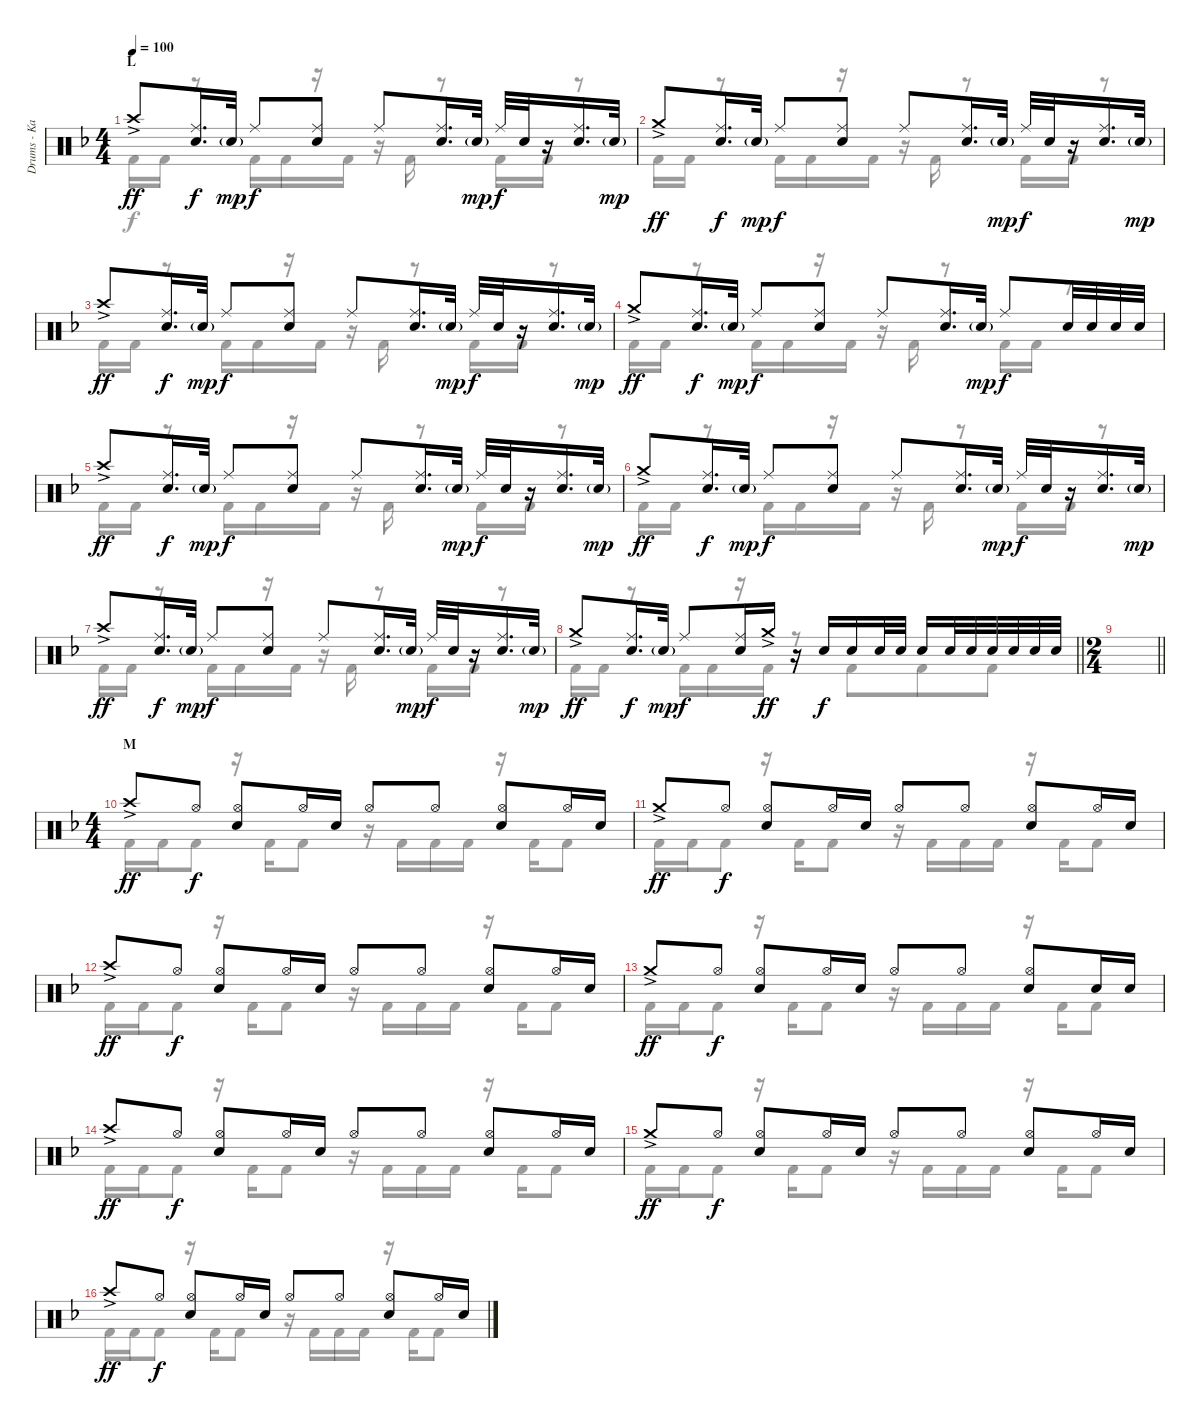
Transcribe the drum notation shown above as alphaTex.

\track ("Drums - Kai" "Drums - Ka") {instrument percussion}
\staff {score}
\articulation defaults
\voice
\ts (4 4)
\section ("" "L")
\tempo 100
\clef neutral
\ks f "Crash high (hit)"{ac}.8{dy ff}
("Ride (middle)" "Electric Snare (hit)").16{d dy f} "Electric Snare (hit)"{g}.32{dy mp} "Ride (middle)".8{dy f} ("Ride (middle)" "Electric Snare (hit)").8 "Ride (middle)".8 ("Ride (middle)" "Electric Snare (hit)").16{d} "Electric Snare (hit)"{g}.32{dy mp} "Ride (middle)".32{dy f} "Electric Snare (hit)".32 r.16 ("Ride (middle)" "Electric Snare (hit)").16{d} "Electric Snare (hit)"{g}.32{dy mp} |
"Crash medium (hit)"{ac}.8{dy ff} ("Ride (middle)" "Electric Snare (hit)").16{d dy f} "Electric Snare (hit)"{g}.32{dy mp} "Ride (middle)".8{dy f} ("Ride (middle)" "Electric Snare (hit)").8 "Ride (middle)".8 ("Ride (middle)" "Electric Snare (hit)").16{d} "Electric Snare (hit)"{g}.32{dy mp} "Ride (middle)".32{dy f} "Electric Snare (hit)".32 r.16 ("Ride (middle)" "Electric Snare (hit)").16{d} "Electric Snare (hit)"{g}.32{dy mp} |
"Crash high (hit)"{ac}.8{dy ff} ("Ride (middle)" "Electric Snare (hit)").16{d dy f} "Electric Snare (hit)"{g}.32{dy mp} "Ride (middle)".8{dy f} ("Ride (middle)" "Electric Snare (hit)").8 "Ride (middle)".8 ("Ride (middle)" "Electric Snare (hit)").16{d} "Electric Snare (hit)"{g}.32{dy mp} "Ride (middle)".32{dy f} "Electric Snare (hit)".32 r.16 ("Ride (middle)" "Electric Snare (hit)").16{d} "Electric Snare (hit)"{g}.32{dy mp} |
"Crash medium (hit)"{ac}.8{dy ff} ("Ride (middle)" "Electric Snare (hit)").16{d dy f} "Electric Snare (hit)"{g}.32{dy mp} "Ride (middle)".8{dy f} ("Ride (middle)" "Electric Snare (hit)").8 "Ride (middle)".8 ("Ride (middle)" "Electric Snare (hit)").16{d} "Electric Snare (hit)"{g}.32{dy mp} "Ride (middle)".8{dy f} "Electric Snare (hit)".32 "Electric Snare (hit)".32 "Electric Snare (hit)".32 "Electric Snare (hit)".32 |
"Crash high (hit)"{ac}.8{dy ff} ("Ride (middle)" "Electric Snare (hit)").16{d dy f} "Electric Snare (hit)"{g}.32{dy mp} "Ride (middle)".8{dy f} ("Ride (middle)" "Electric Snare (hit)").8 "Ride (middle)".8 ("Ride (middle)" "Electric Snare (hit)").16{d} "Electric Snare (hit)"{g}.32{dy mp} "Ride (middle)".32{dy f} "Electric Snare (hit)".32 r.16 ("Ride (middle)" "Electric Snare (hit)").16{d} "Electric Snare (hit)"{g}.32{dy mp} |
"Crash medium (hit)"{ac}.8{dy ff} ("Ride (middle)" "Electric Snare (hit)").16{d dy f} "Electric Snare (hit)"{g}.32{dy mp} "Ride (middle)".8{dy f} ("Ride (middle)" "Electric Snare (hit)").8 "Ride (middle)".8 ("Ride (middle)" "Electric Snare (hit)").16{d} "Electric Snare (hit)"{g}.32{dy mp} "Ride (middle)".32{dy f} "Electric Snare (hit)".32 r.16 ("Ride (middle)" "Electric Snare (hit)").16{d} "Electric Snare (hit)"{g}.32{dy mp} |
"Crash high (hit)"{ac}.8{dy ff} ("Ride (middle)" "Electric Snare (hit)").16{d dy f} "Electric Snare (hit)"{g}.32{dy mp} "Ride (middle)".8{dy f} ("Ride (middle)" "Electric Snare (hit)").8 "Ride (middle)".8 ("Ride (middle)" "Electric Snare (hit)").16{d} "Electric Snare (hit)"{g}.32{dy mp} "Ride (middle)".32{dy f} "Electric Snare (hit)".32 r.16 ("Ride (middle)" "Electric Snare (hit)").16{d} "Electric Snare (hit)"{g}.32{dy mp} |
\barLineRight lightlight "Crash medium (hit)"{ac}.8{dy ff}
("Ride (middle)" "Electric Snare (hit)").16{d dy f} "Electric Snare (hit)"{g}.32{dy mp} "Ride (middle)".8{dy f} ("Ride (middle)" "Electric Snare (hit)").16 "Crash medium (hit)"{ac}.16{dy ff} r.16 "Electric Snare (hit)".16{dy f} "Electric Snare (hit)".16 "Electric Snare (hit)".32 "Electric Snare (hit)".32 "Electric Snare (hit)".16 "Electric Snare (hit)".32 "Electric Snare (hit)".32 "Electric Snare (hit)".32 "Electric Snare (hit)".32 "Electric Snare (hit)".32 "Electric Snare (hit)".32 |
\ts (2 4)
\barLineRight lightlight
|
\ts (4 4)
\section ("" "M")
"Crash high (hit)"{ac}.8{dy ff} "Hi-Hat (open)".8{dy f} ("Hi-Hat (open)" "Electric Snare (hit)").8 "Hi-Hat (open)".16 "Electric Snare (hit)".16 "Hi-Hat (open)".8 "Hi-Hat (open)".8 ("Hi-Hat (open)" "Electric Snare (hit)").8 "Hi-Hat (open)".16 "Electric Snare (hit)".16 |
"Crash medium (hit)"{ac}.8{dy ff} "Hi-Hat (open)".8{dy f} ("Hi-Hat (open)" "Electric Snare (hit)").8 "Hi-Hat (open)".16 "Electric Snare (hit)".16 "Hi-Hat (open)".8 "Hi-Hat (open)".8 ("Hi-Hat (open)" "Electric Snare (hit)").8 "Hi-Hat (open)".16 "Electric Snare (hit)".16 |
"Crash high (hit)"{ac}.8{dy ff} "Hi-Hat (open)".8{dy f} ("Hi-Hat (open)" "Electric Snare (hit)").8 "Hi-Hat (open)".16 "Electric Snare (hit)".16 "Hi-Hat (open)".8 "Hi-Hat (open)".8 ("Hi-Hat (open)" "Electric Snare (hit)").8 "Hi-Hat (open)".16 "Electric Snare (hit)".16 |
"Crash medium (hit)"{ac}.8{dy ff} "Hi-Hat (open)".8{dy f} ("Hi-Hat (open)" "Electric Snare (hit)").8 "Hi-Hat (open)".16 "Electric Snare (hit)".16 "Hi-Hat (open)".8 "Hi-Hat (open)".8 ("Hi-Hat (open)" "Electric Snare (hit)").8 "Electric Snare (hit)".16 "Electric Snare (hit)".16 |
"Crash high (hit)"{ac}.8{dy ff} "Hi-Hat (open)".8{dy f} ("Hi-Hat (open)" "Electric Snare (hit)").8 "Hi-Hat (open)".16 "Electric Snare (hit)".16 "Hi-Hat (open)".8 "Hi-Hat (open)".8 ("Hi-Hat (open)" "Electric Snare (hit)").8 "Hi-Hat (open)".16 "Electric Snare (hit)".16 |
"Crash medium (hit)"{ac}.8{dy ff} "Hi-Hat (open)".8{dy f} ("Hi-Hat (open)" "Electric Snare (hit)").8 "Hi-Hat (open)".16 "Electric Snare (hit)".16 "Hi-Hat (open)".8 "Hi-Hat (open)".8 ("Hi-Hat (open)" "Electric Snare (hit)").8 "Hi-Hat (open)".16 "Electric Snare (hit)".16 |
"Crash high (hit)"{ac}.8{dy ff} "Hi-Hat (open)".8{dy f} ("Hi-Hat (open)" "Electric Snare (hit)").8 "Hi-Hat (open)".16 "Electric Snare (hit)".16 "Hi-Hat (open)".8 "Hi-Hat (open)".8 ("Hi-Hat (open)" "Electric Snare (hit)").8 "Hi-Hat (open)".16 "Electric Snare (hit)".16
\voice
\clef neutral
\ottava regular
\simile none
\ks f "Kick (hit) 2".16{dy f} "Kick (hit) 2".16
r.8 "Kick (hit) 2".16 "Kick (hit) 2".16 r.16 "Kick (hit) 2".16 r.16 "Kick (hit) 2".16 r.8 "Kick (hit) 2".16 "Kick (hit) 2".16 r.8 |
"Kick (hit) 2".16 "Kick (hit) 2".16 r.8 "Kick (hit) 2".16 "Kick (hit) 2".16 r.16 "Kick (hit) 2".16 r.16 "Kick (hit) 2".16 r.8 "Kick (hit) 2".16 "Kick (hit) 2".16 r.8 |
"Kick (hit) 2".16 "Kick (hit) 2".16 r.8 "Kick (hit) 2".16 "Kick (hit) 2".16 r.16 "Kick (hit) 2".16 r.16 "Kick (hit) 2".16 r.8 "Kick (hit) 2".16 "Kick (hit) 2".16 r.8 |
"Kick (hit) 2".16 "Kick (hit) 2".16 r.8 "Kick (hit) 2".16 "Kick (hit) 2".16 r.16 "Kick (hit) 2".16 r.16 "Kick (hit) 2".16 r.8 "Kick (hit) 2".16 "Kick (hit) 2".16 r.8 |
"Kick (hit) 2".16 "Kick (hit) 2".16 r.8 "Kick (hit) 2".16 "Kick (hit) 2".16 r.16 "Kick (hit) 2".16 r.16 "Kick (hit) 2".16 r.8 "Kick (hit) 2".16 "Kick (hit) 2".16 r.8 |
"Kick (hit) 2".16 "Kick (hit) 2".16 r.8 "Kick (hit) 2".16 "Kick (hit) 2".16 r.16 "Kick (hit) 2".16 r.16 "Kick (hit) 2".16 r.8 "Kick (hit) 2".16 "Kick (hit) 2".16 r.8 |
"Kick (hit) 2".16 "Kick (hit) 2".16 r.8 "Kick (hit) 2".16 "Kick (hit) 2".16 r.16 "Kick (hit) 2".16 r.16 "Kick (hit) 2".16 r.8 "Kick (hit) 2".16 "Kick (hit) 2".16 r.8 |
\barLineRight lightlight "Kick (hit) 2".16 "Kick (hit) 2".16
r.8 "Kick (hit) 2".16 "Kick (hit) 2".16 r.16 "Kick (hit) 2".16 r.8 "Kick (hit) 2".8{beam merge} "Kick (hit) 2".8 "Kick (hit) 2".8 |
\barLineRight lightlight
|
"Kick (hit) 2".16 "Kick (hit) 2".16 "Kick (hit) 2".8 r.16 "Kick (hit) 2".16 "Kick (hit) 2".8 r.16 "Kick (hit) 2".16 "Kick (hit) 2".16 "Kick (hit) 2".16 r.16 "Kick (hit) 2".16 "Kick (hit) 2".8 |
"Kick (hit) 2".16 "Kick (hit) 2".16 "Kick (hit) 2".8 r.16 "Kick (hit) 2".16 "Kick (hit) 2".8 r.16 "Kick (hit) 2".16 "Kick (hit) 2".16 "Kick (hit) 2".16 r.16 "Kick (hit) 2".16 "Kick (hit) 2".8 |
"Kick (hit) 2".16 "Kick (hit) 2".16 "Kick (hit) 2".8 r.16 "Kick (hit) 2".16 "Kick (hit) 2".8 r.16 "Kick (hit) 2".16 "Kick (hit) 2".16 "Kick (hit) 2".16 r.16 "Kick (hit) 2".16 "Kick (hit) 2".8 |
"Kick (hit) 2".16 "Kick (hit) 2".16 "Kick (hit) 2".8 r.16 "Kick (hit) 2".16 "Kick (hit) 2".8 r.16 "Kick (hit) 2".16 "Kick (hit) 2".16 "Kick (hit) 2".16 r.16 "Kick (hit) 2".16 "Kick (hit) 2".8 |
"Kick (hit) 2".16 "Kick (hit) 2".16 "Kick (hit) 2".8 r.16 "Kick (hit) 2".16 "Kick (hit) 2".8 r.16 "Kick (hit) 2".16 "Kick (hit) 2".16 "Kick (hit) 2".16 r.16 "Kick (hit) 2".16 "Kick (hit) 2".8 |
"Kick (hit) 2".16 "Kick (hit) 2".16 "Kick (hit) 2".8 r.16 "Kick (hit) 2".16 "Kick (hit) 2".8 r.16 "Kick (hit) 2".16 "Kick (hit) 2".16 "Kick (hit) 2".16 r.16 "Kick (hit) 2".16 "Kick (hit) 2".8 |
"Kick (hit) 2".16 "Kick (hit) 2".16 "Kick (hit) 2".8 r.16 "Kick (hit) 2".16 "Kick (hit) 2".8 r.16 "Kick (hit) 2".16 "Kick (hit) 2".16 "Kick (hit) 2".16 r.16 "Kick (hit) 2".16 "Kick (hit) 2".8
